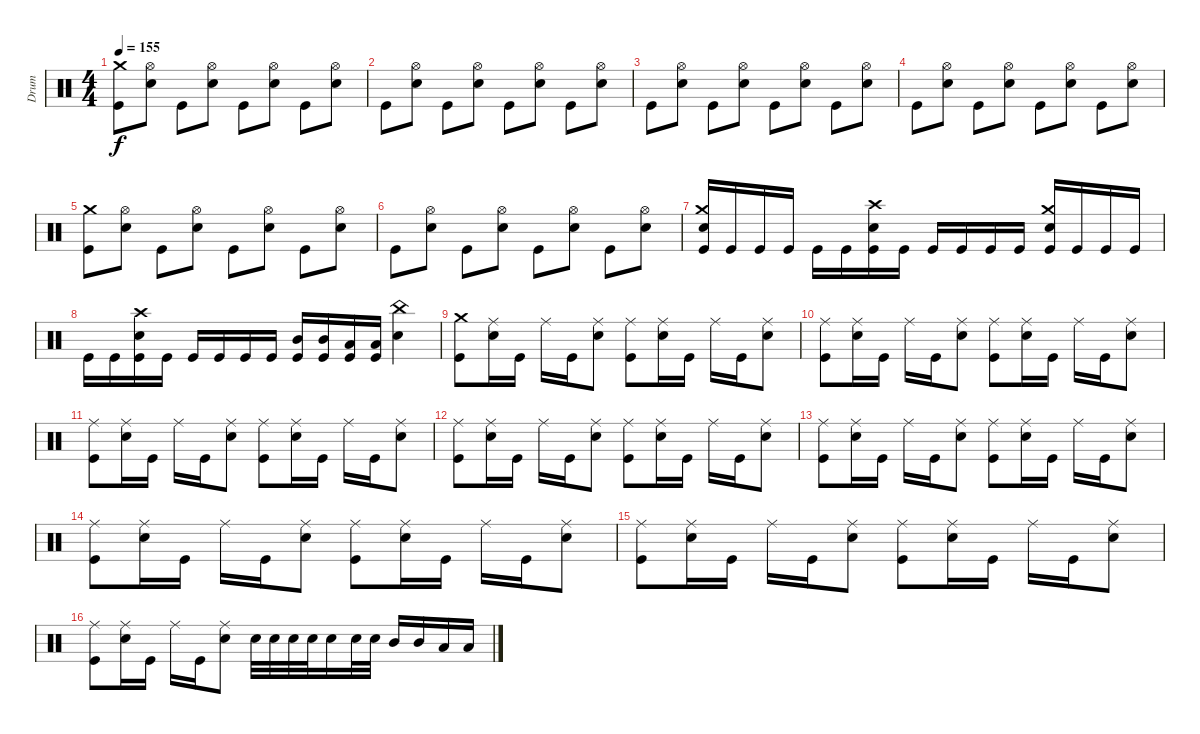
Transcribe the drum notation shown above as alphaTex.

\track ("Drum" "Drum") {instrument percussion}
\staff {score}
\articulation defaults
\ts (4 4)
\tempo 155
\clef neutral
\ks c
("Kick (hit)" "Crash medium (hit)").8{dy f} ("Electric Snare (hit)" "Hi-Hat (open)").8 "Kick (hit)".8 ("Electric Snare (hit)" "Hi-Hat (open)").8 "Kick (hit)".8 ("Electric Snare (hit)" "Hi-Hat (open)").8 "Kick (hit)".8 ("Electric Snare (hit)" "Hi-Hat (open)").8 |
"Kick (hit)".8 ("Electric Snare (hit)" "Hi-Hat (open)").8 "Kick (hit)".8 ("Electric Snare (hit)" "Hi-Hat (open)").8 "Kick (hit)".8 ("Electric Snare (hit)" "Hi-Hat (open)").8 "Kick (hit)".8 ("Electric Snare (hit)" "Hi-Hat (open)").8 |
"Kick (hit)".8 ("Electric Snare (hit)" "Hi-Hat (open)").8 "Kick (hit)".8 ("Electric Snare (hit)" "Hi-Hat (open)").8 "Kick (hit)".8 ("Electric Snare (hit)" "Hi-Hat (open)").8 "Kick (hit)".8 ("Electric Snare (hit)" "Hi-Hat (open)").8 |
"Kick (hit)".8 ("Electric Snare (hit)" "Hi-Hat (open)").8 "Kick (hit)".8 ("Electric Snare (hit)" "Hi-Hat (open)").8 "Kick (hit)".8 ("Electric Snare (hit)" "Hi-Hat (open)").8 "Kick (hit)".8 ("Electric Snare (hit)" "Hi-Hat (open)").8 |
("Kick (hit)" "Crash medium (hit)").8 ("Electric Snare (hit)" "Hi-Hat (open)").8 "Kick (hit)".8 ("Electric Snare (hit)" "Hi-Hat (open)").8 "Kick (hit)".8 ("Electric Snare (hit)" "Hi-Hat (open)").8 "Kick (hit)".8 ("Electric Snare (hit)" "Hi-Hat (open)").8 |
"Kick (hit)".8 ("Electric Snare (hit)" "Hi-Hat (open)").8 "Kick (hit)".8 ("Electric Snare (hit)" "Hi-Hat (open)").8 "Kick (hit)".8 ("Electric Snare (hit)" "Hi-Hat (open)").8 "Kick (hit)".8 ("Electric Snare (hit)" "Hi-Hat (open)").8 |
("Kick (hit)" "Electric Snare (hit)" "Crash medium (hit)").16 "Kick (hit)".16 "Kick (hit)".16 "Kick (hit)".16 "Kick (hit)".16 "Kick (hit)".16 ("Kick (hit)" "Electric Snare (hit)" "Crash high (hit)").16 "Kick (hit)".16 "Kick (hit)".16 "Kick (hit)".16 "Kick (hit)".16 "Kick (hit)".16 ("Kick (hit)" "Electric Snare (hit)" "Crash medium (hit)").16 "Kick (hit)".16 "Kick (hit)".16 "Kick (hit)".16 |
"Kick (hit)".16 "Kick (hit)".16 ("Kick (hit)" "Electric Snare (hit)" "Crash high (hit)").16 "Kick (hit)".16 "Kick (hit)".16 "Kick (hit)".16 "Kick (hit)".16 "Kick (hit)".16 ("Kick (hit)" "Mid Tom (hit)").16 ("Kick (hit)" "Mid Tom (hit)").16 ("Kick (hit)" "Low Tom (hit)").16 ("Kick (hit)" "Low Tom (hit)").16 ("Electric Snare (hit)" "China (hit)").4 |
("Kick (hit)" "Crash medium (hit)").8 ("Electric Snare (hit)" "Ride (middle)").16 "Kick (hit)".16 "Ride (middle)".16 "Kick (hit)".16 ("Electric Snare (hit)" "Ride (middle)").8 ("Kick (hit)" "Ride (middle)").8 ("Electric Snare (hit)" "Ride (middle)").16 "Kick (hit)".16 "Ride (middle)".16 "Kick (hit)".16 ("Electric Snare (hit)" "Ride (middle)").8 |
("Kick (hit)" "Ride (middle)").8 ("Electric Snare (hit)" "Ride (middle)").16 "Kick (hit)".16 "Ride (middle)".16 "Kick (hit)".16 ("Electric Snare (hit)" "Ride (middle)").8 ("Kick (hit)" "Ride (middle)").8 ("Electric Snare (hit)" "Ride (middle)").16 "Kick (hit)".16 "Ride (middle)".16 "Kick (hit)".16 ("Electric Snare (hit)" "Ride (middle)").8 |
("Kick (hit)" "Ride (middle)").8 ("Electric Snare (hit)" "Ride (middle)").16 "Kick (hit)".16 "Ride (middle)".16 "Kick (hit)".16 ("Electric Snare (hit)" "Ride (middle)").8 ("Kick (hit)" "Ride (middle)").8 ("Electric Snare (hit)" "Ride (middle)").16 "Kick (hit)".16 "Ride (middle)".16 "Kick (hit)".16 ("Electric Snare (hit)" "Ride (middle)").8 |
("Kick (hit)" "Ride (middle)").8 ("Electric Snare (hit)" "Ride (middle)").16 "Kick (hit)".16 "Ride (middle)".16 "Kick (hit)".16 ("Electric Snare (hit)" "Ride (middle)").8 ("Kick (hit)" "Ride (middle)").8 ("Electric Snare (hit)" "Ride (middle)").16 "Kick (hit)".16 "Ride (middle)".16 "Kick (hit)".16 ("Electric Snare (hit)" "Ride (middle)").8 |
("Kick (hit)" "Ride (middle)").8 ("Electric Snare (hit)" "Ride (middle)").16 "Kick (hit)".16 "Ride (middle)".16 "Kick (hit)".16 ("Electric Snare (hit)" "Ride (middle)").8 ("Kick (hit)" "Ride (middle)").8 ("Electric Snare (hit)" "Ride (middle)").16 "Kick (hit)".16 "Ride (middle)".16 "Kick (hit)".16 ("Electric Snare (hit)" "Ride (middle)").8 |
("Kick (hit)" "Ride (middle)").8 ("Electric Snare (hit)" "Ride (middle)").16 "Kick (hit)".16 "Ride (middle)".16 "Kick (hit)".16 ("Electric Snare (hit)" "Ride (middle)").8 ("Kick (hit)" "Ride (middle)").8 ("Electric Snare (hit)" "Ride (middle)").16 "Kick (hit)".16 "Ride (middle)".16 "Kick (hit)".16 ("Electric Snare (hit)" "Ride (middle)").8 |
("Kick (hit)" "Ride (middle)").8 ("Electric Snare (hit)" "Ride (middle)").16 "Kick (hit)".16 "Ride (middle)".16 "Kick (hit)".16 ("Electric Snare (hit)" "Ride (middle)").8 ("Kick (hit)" "Ride (middle)").8 ("Electric Snare (hit)" "Ride (middle)").16 "Kick (hit)".16 "Ride (middle)".16 "Kick (hit)".16 ("Electric Snare (hit)" "Ride (middle)").8 |
("Kick (hit)" "Ride (middle)").8 ("Electric Snare (hit)" "Ride (middle)").16 "Kick (hit)".16 "Ride (middle)".16 "Kick (hit)".16 ("Electric Snare (hit)" "Ride (middle)").8 "Electric Snare (hit)".32 "Electric Snare (hit)".32 "Electric Snare (hit)".32 "Electric Snare (hit)".32 "Electric Snare (hit)".16 "Electric Snare (hit)".32 "Electric Snare (hit)".32 "Mid Tom (hit)".16 "Mid Tom (hit)".16 "Low Tom (hit)".16 "Low Tom (hit)".16
